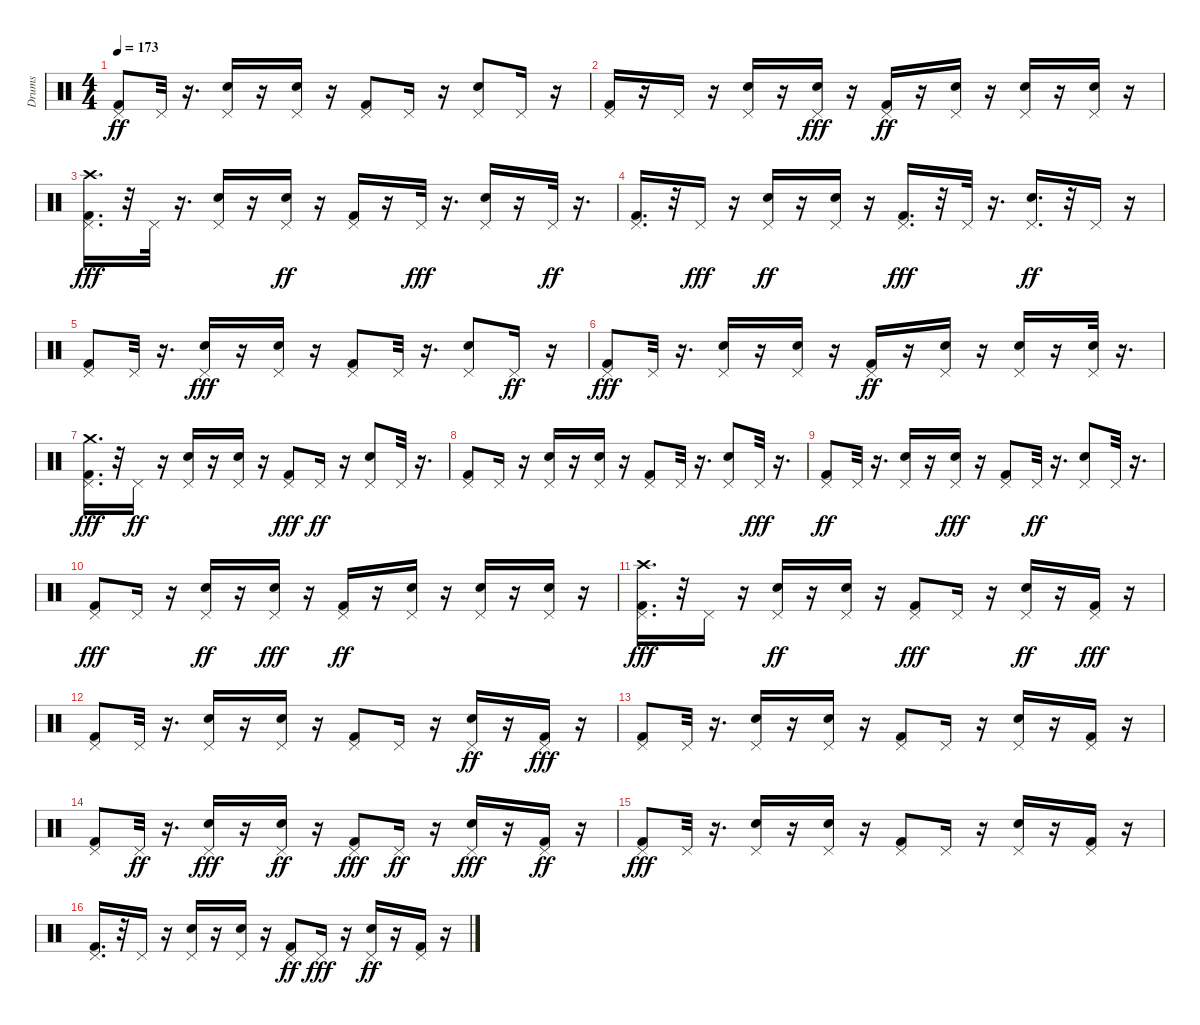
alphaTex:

\track ("Drums" "Drums") {instrument percussion}
\staff {score}
\articulation defaults
\ts (4 4)
\tempo 173
\clef neutral
\ks c
("Kick (hit) 2" "Pedal Hi-Hat (hit)").8{dy ff} "Pedal Hi-Hat (hit)".32 r.16{d} ("Snare (hit) 2" "Pedal Hi-Hat (hit)").16 r.16 ("Snare (hit) 2" "Pedal Hi-Hat (hit)").16 r.16 ("Kick (hit) 2" "Pedal Hi-Hat (hit)").8 "Pedal Hi-Hat (hit)".16 r.16 ("Snare (hit) 2" "Pedal Hi-Hat (hit)").8 "Pedal Hi-Hat (hit)".16 r.16 |
("Kick (hit) 2" "Pedal Hi-Hat (hit)").16 r.16 "Pedal Hi-Hat (hit)".16 r.16 ("Snare (hit) 2" "Pedal Hi-Hat (hit)").16 r.16 ("Snare (hit) 2" "Pedal Hi-Hat (hit)").16{dy fff} r.16 ("Kick (hit) 2" "Pedal Hi-Hat (hit)").16{dy ff} r.16 ("Snare (hit) 2" "Pedal Hi-Hat (hit)").16 r.16 ("Snare (hit) 2" "Pedal Hi-Hat (hit)").16 r.16 ("Snare (hit) 2" "Pedal Hi-Hat (hit)").16 r.16 |
("Kick (hit) 2" "Pedal Hi-Hat (hit)" "Crash high (hit)").16{d dy fff} r.32 "Pedal Hi-Hat (hit)".32 r.16{d} ("Snare (hit) 2" "Pedal Hi-Hat (hit)").16 r.16 ("Snare (hit) 2" "Pedal Hi-Hat (hit)").16{dy ff} r.16 ("Kick (hit) 2" "Pedal Hi-Hat (hit)").16 r.16 "Pedal Hi-Hat (hit)".32{dy fff} r.16{d} ("Snare (hit) 2" "Pedal Hi-Hat (hit)").16 r.16 "Pedal Hi-Hat (hit)".32{dy ff} r.16{d} |
("Kick (hit) 2" "Pedal Hi-Hat (hit)").16{d} r.32 "Pedal Hi-Hat (hit)".16{dy fff} r.16 ("Snare (hit) 2" "Pedal Hi-Hat (hit)").16{dy ff} r.16 ("Snare (hit) 2" "Pedal Hi-Hat (hit)").16 r.16 ("Kick (hit) 2" "Pedal Hi-Hat (hit)").16{d dy fff} r.32 "Pedal Hi-Hat (hit)".32 r.16{d} ("Snare (hit) 2" "Pedal Hi-Hat (hit)").16{d dy ff} r.32 "Pedal Hi-Hat (hit)".16 r.16 |
("Kick (hit) 2" "Pedal Hi-Hat (hit)").8 "Pedal Hi-Hat (hit)".32 r.16{d} ("Snare (hit) 2" "Pedal Hi-Hat (hit)").16{dy fff} r.16 ("Snare (hit) 2" "Pedal Hi-Hat (hit)").16 r.16 ("Kick (hit) 2" "Pedal Hi-Hat (hit)").8 "Pedal Hi-Hat (hit)".32 r.16{d} ("Snare (hit) 2" "Pedal Hi-Hat (hit)").8 "Pedal Hi-Hat (hit)".16{dy ff} r.16 |
("Kick (hit) 2" "Pedal Hi-Hat (hit)").8{dy fff} "Pedal Hi-Hat (hit)".32 r.16{d} ("Snare (hit) 2" "Pedal Hi-Hat (hit)").16 r.16 ("Snare (hit) 2" "Pedal Hi-Hat (hit)").16 r.16 ("Kick (hit) 2" "Pedal Hi-Hat (hit)").16{dy ff} r.16 ("Snare (hit) 2" "Pedal Hi-Hat (hit)").16 r.16 ("Snare (hit) 2" "Pedal Hi-Hat (hit)").16 r.16 ("Snare (hit) 2" "Pedal Hi-Hat (hit)").32 r.16{d} |
("Kick (hit) 2" "Pedal Hi-Hat (hit)" "Crash medium (hit)").16{d dy fff} r.32 "Pedal Hi-Hat (hit)".16{dy ff} r.16 ("Snare (hit) 2" "Pedal Hi-Hat (hit)").16 r.16 ("Snare (hit) 2" "Pedal Hi-Hat (hit)").16 r.16 ("Kick (hit) 2" "Pedal Hi-Hat (hit)").8{dy fff} "Pedal Hi-Hat (hit)".16{dy ff} r.16 ("Snare (hit) 2" "Pedal Hi-Hat (hit)").8 "Pedal Hi-Hat (hit)".32 r.16{d} |
("Kick (hit) 2" "Pedal Hi-Hat (hit)").8 "Pedal Hi-Hat (hit)".16 r.16 ("Snare (hit) 2" "Pedal Hi-Hat (hit)").16 r.16 ("Snare (hit) 2" "Pedal Hi-Hat (hit)").16 r.16 ("Kick (hit) 2" "Pedal Hi-Hat (hit)").8 "Pedal Hi-Hat (hit)".32 r.16{d} ("Snare (hit) 2" "Pedal Hi-Hat (hit)").8 "Pedal Hi-Hat (hit)".32{dy fff} r.16{d} |
("Kick (hit) 2" "Pedal Hi-Hat (hit)").8{dy ff} "Pedal Hi-Hat (hit)".32 r.16{d} ("Snare (hit) 2" "Pedal Hi-Hat (hit)").16 r.16 ("Snare (hit) 2" "Pedal Hi-Hat (hit)").16{dy fff} r.16 ("Kick (hit) 2" "Pedal Hi-Hat (hit)").8 "Pedal Hi-Hat (hit)".32{dy ff} r.16{d} ("Snare (hit) 2" "Pedal Hi-Hat (hit)").8 "Pedal Hi-Hat (hit)".32 r.16{d} |
("Kick (hit) 2" "Pedal Hi-Hat (hit)").8{dy fff} "Pedal Hi-Hat (hit)".16 r.16 ("Snare (hit) 2" "Pedal Hi-Hat (hit)").16{dy ff} r.16 ("Snare (hit) 2" "Pedal Hi-Hat (hit)").16{dy fff} r.16 ("Kick (hit) 2" "Pedal Hi-Hat (hit)").16{dy ff} r.16 ("Snare (hit) 2" "Pedal Hi-Hat (hit)").16 r.16 ("Snare (hit) 2" "Pedal Hi-Hat (hit)").16 r.16 ("Snare (hit) 2" "Pedal Hi-Hat (hit)").16 r.16 |
("Kick (hit) 2" "Pedal Hi-Hat (hit)" "Crash high (hit)").16{d dy fff} r.32 "Pedal Hi-Hat (hit)".16 r.16 ("Snare (hit) 2" "Pedal Hi-Hat (hit)").16{dy ff} r.16 ("Snare (hit) 2" "Pedal Hi-Hat (hit)").16 r.16 ("Kick (hit) 2" "Pedal Hi-Hat (hit)").8{dy fff} "Pedal Hi-Hat (hit)".16 r.16 ("Snare (hit) 2" "Pedal Hi-Hat (hit)").16{dy ff} r.16 ("Kick (hit) 2" "Pedal Hi-Hat (hit)").16{dy fff} r.16 |
("Kick (hit) 2" "Pedal Hi-Hat (hit)").8 "Pedal Hi-Hat (hit)".32 r.16{d} ("Snare (hit) 2" "Pedal Hi-Hat (hit)").16 r.16 ("Snare (hit) 2" "Pedal Hi-Hat (hit)").16 r.16 ("Kick (hit) 2" "Pedal Hi-Hat (hit)").8 "Pedal Hi-Hat (hit)".16 r.16 ("Snare (hit) 2" "Pedal Hi-Hat (hit)").16{dy ff} r.16 ("Kick (hit) 2" "Pedal Hi-Hat (hit)").16{dy fff} r.16 |
("Kick (hit) 2" "Pedal Hi-Hat (hit)").8 "Pedal Hi-Hat (hit)".32 r.16{d} ("Snare (hit) 2" "Pedal Hi-Hat (hit)").16 r.16 ("Snare (hit) 2" "Pedal Hi-Hat (hit)").16 r.16 ("Kick (hit) 2" "Pedal Hi-Hat (hit)").8 "Pedal Hi-Hat (hit)".16 r.16 ("Snare (hit) 2" "Pedal Hi-Hat (hit)").16 r.16 ("Kick (hit) 2" "Pedal Hi-Hat (hit)").16 r.16 |
("Kick (hit) 2" "Pedal Hi-Hat (hit)").8 "Pedal Hi-Hat (hit)".32{dy ff} r.16{d} ("Snare (hit) 2" "Pedal Hi-Hat (hit)").16{dy fff} r.16 ("Snare (hit) 2" "Pedal Hi-Hat (hit)").16{dy ff} r.16 ("Kick (hit) 2" "Pedal Hi-Hat (hit)").8{dy fff} "Pedal Hi-Hat (hit)".16{dy ff} r.16 ("Snare (hit) 2" "Pedal Hi-Hat (hit)").16{dy fff} r.16 ("Kick (hit) 2" "Pedal Hi-Hat (hit)").16{dy ff} r.16 |
("Kick (hit) 2" "Pedal Hi-Hat (hit)").8{dy fff} "Pedal Hi-Hat (hit)".32 r.16{d} ("Snare (hit) 2" "Pedal Hi-Hat (hit)").16 r.16 ("Snare (hit) 2" "Pedal Hi-Hat (hit)").16 r.16 ("Kick (hit) 2" "Pedal Hi-Hat (hit)").8 "Pedal Hi-Hat (hit)".16 r.16 ("Snare (hit) 2" "Pedal Hi-Hat (hit)").16 r.16 ("Kick (hit) 2" "Pedal Hi-Hat (hit)").16 r.16 |
("Kick (hit) 2" "Pedal Hi-Hat (hit)").16{d} r.32 "Pedal Hi-Hat (hit)".16 r.16 ("Snare (hit) 2" "Pedal Hi-Hat (hit)").16 r.16 ("Snare (hit) 2" "Pedal Hi-Hat (hit)").16 r.16 ("Kick (hit) 2" "Pedal Hi-Hat (hit)").8{dy ff} "Pedal Hi-Hat (hit)".16{dy fff} r.16 ("Snare (hit) 2" "Pedal Hi-Hat (hit)").16{dy ff} r.16 ("Kick (hit) 2" "Pedal Hi-Hat (hit)").16 r.16
